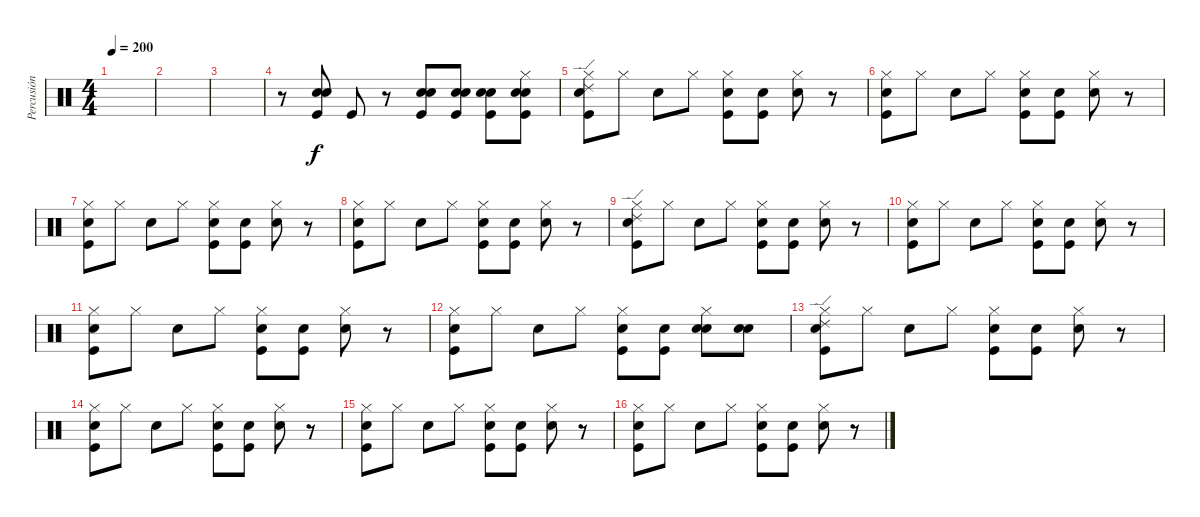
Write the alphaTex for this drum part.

\track ("Percusión" "Percusión") {instrument percussion}
\staff {score}
\articulation defaults
\ts (4 4)
\tempo 200
\clef neutral
\ks c
|
|
|
r.8 ("Snare (hit) 2" "Electric Snare (hit)" "Kick (hit)").8 "Kick (hit)".8 r.8 ("Snare (hit) 2" "Electric Snare (hit)" "Kick (hit)").8 ("Snare (hit) 2" "Electric Snare (hit)" "Kick (hit)").8 ("Snare (hit) 2" "Electric Snare (hit)" "Kick (hit)").8 ("Snare (hit) 2" "Hi-Hat (closed)" "Electric Snare (hit)" "Kick (hit)").8 |
("Snare (hit) 2" "Hi-Hat (closed)" "Ride (edge) 2" "Kick (hit)").8 "Hi-Hat (closed)".8 "Electric Snare (hit)".8 "Hi-Hat (closed)".8 ("Snare (hit) 2" "Hi-Hat (closed)" "Kick (hit)").8 ("Snare (hit) 2" "Kick (hit)").8 ("Hi-Hat (closed)" "Electric Snare (hit)").8 r.8 |
("Snare (hit) 2" "Hi-Hat (closed)" "Kick (hit)").8 "Hi-Hat (closed)".8 "Electric Snare (hit)".8 "Hi-Hat (closed)".8 ("Snare (hit) 2" "Hi-Hat (closed)" "Kick (hit)").8 ("Snare (hit) 2" "Kick (hit)").8 ("Hi-Hat (closed)" "Electric Snare (hit)").8 r.8 |
("Snare (hit) 2" "Hi-Hat (closed)" "Kick (hit)").8 "Hi-Hat (closed)".8 "Electric Snare (hit)".8 "Hi-Hat (closed)".8 ("Snare (hit) 2" "Hi-Hat (closed)" "Kick (hit)").8 ("Snare (hit) 2" "Kick (hit)").8 ("Hi-Hat (closed)" "Electric Snare (hit)").8 r.8 |
("Snare (hit) 2" "Hi-Hat (closed)" "Kick (hit)").8 "Hi-Hat (closed)".8 "Electric Snare (hit)".8 "Hi-Hat (closed)".8 ("Snare (hit) 2" "Hi-Hat (closed)" "Kick (hit)").8 ("Snare (hit) 2" "Kick (hit)").8 ("Hi-Hat (closed)" "Electric Snare (hit)").8 r.8 |
("Snare (hit) 2" "Hi-Hat (closed)" "Ride (edge) 2" "Kick (hit)").8 "Hi-Hat (closed)".8 "Electric Snare (hit)".8 "Hi-Hat (closed)".8 ("Snare (hit) 2" "Hi-Hat (closed)" "Kick (hit)").8 ("Snare (hit) 2" "Kick (hit)").8 ("Hi-Hat (closed)" "Electric Snare (hit)").8 r.8 |
("Snare (hit) 2" "Hi-Hat (closed)" "Kick (hit)").8 "Hi-Hat (closed)".8 "Electric Snare (hit)".8 "Hi-Hat (closed)".8 ("Snare (hit) 2" "Hi-Hat (closed)" "Kick (hit)").8 ("Snare (hit) 2" "Kick (hit)").8 ("Hi-Hat (closed)" "Electric Snare (hit)").8 r.8 |
("Snare (hit) 2" "Hi-Hat (closed)" "Kick (hit)").8 "Hi-Hat (closed)".8 "Electric Snare (hit)".8 "Hi-Hat (closed)".8 ("Snare (hit) 2" "Hi-Hat (closed)" "Kick (hit)").8 ("Snare (hit) 2" "Kick (hit)").8 ("Hi-Hat (closed)" "Electric Snare (hit)").8 r.8 |
("Snare (hit) 2" "Hi-Hat (closed)" "Kick (hit)").8 "Hi-Hat (closed)".8 "Electric Snare (hit)".8 "Hi-Hat (closed)".8 ("Snare (hit) 2" "Hi-Hat (closed)" "Kick (hit)").8 ("Snare (hit) 2" "Kick (hit)").8 ("Snare (hit) 2" "Hi-Hat (closed)" "Electric Snare (hit)").8 ("Snare (hit) 2" "Electric Snare (hit)").8 |
("Snare (hit) 2" "Hi-Hat (closed)" "Ride (edge) 2" "Kick (hit)").8 "Hi-Hat (closed)".8 "Electric Snare (hit)".8 "Hi-Hat (closed)".8 ("Snare (hit) 2" "Hi-Hat (closed)" "Kick (hit)").8 ("Snare (hit) 2" "Kick (hit)").8 ("Hi-Hat (closed)" "Electric Snare (hit)").8 r.8 |
("Snare (hit) 2" "Hi-Hat (closed)" "Kick (hit)").8 "Hi-Hat (closed)".8 "Electric Snare (hit)".8 "Hi-Hat (closed)".8 ("Snare (hit) 2" "Hi-Hat (closed)" "Kick (hit)").8 ("Snare (hit) 2" "Kick (hit)").8 ("Hi-Hat (closed)" "Electric Snare (hit)").8 r.8 |
("Snare (hit) 2" "Hi-Hat (closed)" "Kick (hit)").8 "Hi-Hat (closed)".8 "Electric Snare (hit)".8 "Hi-Hat (closed)".8 ("Snare (hit) 2" "Hi-Hat (closed)" "Kick (hit)").8 ("Snare (hit) 2" "Kick (hit)").8 ("Hi-Hat (closed)" "Electric Snare (hit)").8 r.8 |
("Snare (hit) 2" "Hi-Hat (closed)" "Kick (hit)").8 "Hi-Hat (closed)".8 "Electric Snare (hit)".8 "Hi-Hat (closed)".8 ("Snare (hit) 2" "Hi-Hat (closed)" "Kick (hit)").8 ("Snare (hit) 2" "Kick (hit)").8 ("Hi-Hat (closed)" "Electric Snare (hit)").8 r.8
